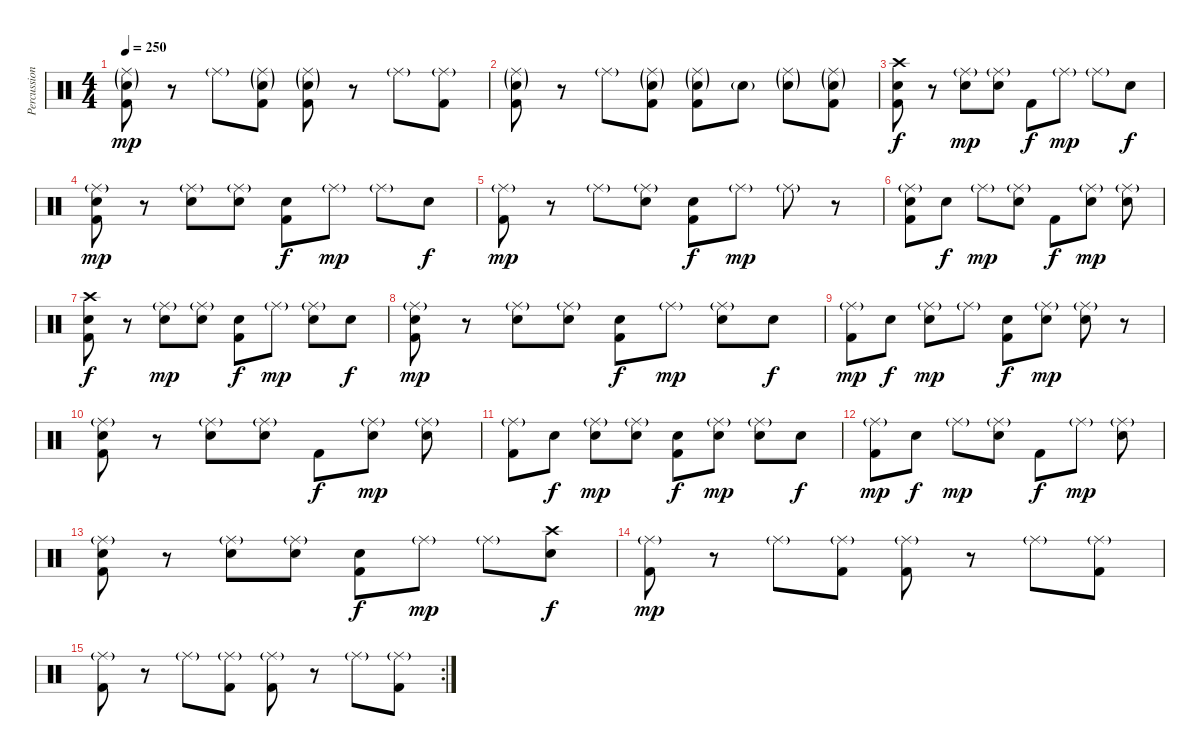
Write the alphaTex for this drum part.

\track ("Percussion" "Percussion") {instrument percussion}
\staff {score}
\articulation defaults
\ts (4 4)
\tempo 250
\clef neutral
\ks c
("Ride (middle)"{g} "Electric Snare (hit)"{g} "Kick (hit) 2").8{dy mp} r.8 "Ride (middle)"{g}.8 ("Ride (middle)"{g} "Electric Snare (hit)"{g} "Kick (hit) 2").8 ("Ride (middle)"{g} "Electric Snare (hit)"{g} "Kick (hit) 2").8 r.8 "Ride (middle)"{g}.8 ("Ride (middle)"{g} "Kick (hit) 2").8 |
("Ride (middle)"{g} "Electric Snare (hit)"{g} "Kick (hit) 2").8 r.8 "Ride (middle)"{g}.8 ("Ride (middle)"{g} "Electric Snare (hit)"{g} "Kick (hit) 2").8 ("Ride (middle)"{g} "Electric Snare (hit)"{g} "Kick (hit) 2").8 "Electric Snare (hit)"{g}.8 ("Ride (middle)"{g} "Electric Snare (hit)"{g}).8 ("Ride (middle)"{g} "Electric Snare (hit)"{g} "Kick (hit) 2").8 |
("Crash high (hit)" "Electric Snare (hit)" "Kick (hit) 2").8{dy f} r.8 ("Ride (middle)"{g} "Electric Snare (hit)").8{dy mp} ("Ride (middle)"{g} "Electric Snare (hit)").8 "Kick (hit) 2".8{dy f} "Ride (middle)"{g}.8{dy mp} "Ride (middle)"{g}.8 "Electric Snare (hit)".8{dy f} |
("Ride (middle)"{g} "Electric Snare (hit)" "Kick (hit) 2").8{dy mp} r.8 ("Ride (middle)"{g} "Electric Snare (hit)").8 ("Ride (middle)"{g} "Electric Snare (hit)").8 ("Electric Snare (hit)" "Kick (hit) 2").8{dy f} "Ride (middle)"{g}.8{dy mp} "Ride (middle)"{g}.8 "Electric Snare (hit)".8{dy f} |
("Ride (middle)"{g} "Kick (hit) 2").8{dy mp} r.8 "Ride (middle)"{g}.8 ("Ride (middle)"{g} "Electric Snare (hit)").8 ("Electric Snare (hit)" "Kick (hit) 2").8{dy f} "Ride (middle)"{g}.8{dy mp} "Ride (middle)"{g}.8 r.8 |
("Ride (middle)"{g} "Electric Snare (hit)" "Kick (hit) 2").8 "Electric Snare (hit)".8{dy f} "Ride (middle)"{g}.8{dy mp} ("Ride (middle)"{g} "Electric Snare (hit)").8 "Kick (hit) 2".8{dy f} ("Ride (middle)"{g} "Electric Snare (hit)").8{dy mp} ("Ride (middle)"{g} "Electric Snare (hit)").8 |
("Crash high (hit)" "Electric Snare (hit)" "Kick (hit) 2").8{dy f} r.8 ("Ride (middle)"{g} "Electric Snare (hit)").8{dy mp} ("Ride (middle)"{g} "Electric Snare (hit)").8 ("Electric Snare (hit)" "Kick (hit) 2").8{dy f} "Ride (middle)"{g}.8{dy mp} ("Ride (middle)"{g} "Electric Snare (hit)").8 "Electric Snare (hit)".8{dy f} |
("Ride (middle)"{g} "Electric Snare (hit)" "Kick (hit) 2").8{dy mp} r.8 ("Ride (middle)"{g} "Electric Snare (hit)").8 ("Ride (middle)"{g} "Electric Snare (hit)").8 ("Electric Snare (hit)" "Kick (hit) 2").8{dy f} "Ride (middle)"{g}.8{dy mp} ("Ride (middle)"{g} "Electric Snare (hit)").8 "Electric Snare (hit)".8{dy f} |
("Ride (middle)"{g} "Kick (hit) 2").8{dy mp} "Electric Snare (hit)".8{dy f} ("Ride (middle)"{g} "Electric Snare (hit)").8{dy mp} "Ride (middle)"{g}.8 ("Electric Snare (hit)" "Kick (hit) 2").8{dy f} ("Ride (middle)"{g} "Electric Snare (hit)").8{dy mp} ("Ride (middle)"{g} "Electric Snare (hit)").8 r.8 |
("Ride (middle)"{g} "Electric Snare (hit)" "Kick (hit) 2").8 r.8 ("Ride (middle)"{g} "Electric Snare (hit)").8 ("Ride (middle)"{g} "Electric Snare (hit)").8 "Kick (hit) 2".8{dy f} ("Ride (middle)"{g} "Electric Snare (hit)").8{dy mp} ("Ride (middle)"{g} "Electric Snare (hit)").8 |
("Ride (middle)"{g} "Kick (hit) 2").8 "Electric Snare (hit)".8{dy f} ("Ride (middle)"{g} "Electric Snare (hit)").8{dy mp} ("Ride (middle)"{g} "Electric Snare (hit)").8 ("Electric Snare (hit)" "Kick (hit) 2").8{dy f} ("Ride (middle)"{g} "Electric Snare (hit)").8{dy mp} ("Ride (middle)"{g} "Electric Snare (hit)").8 "Electric Snare (hit)".8{dy f} |
("Ride (middle)"{g} "Kick (hit) 2").8{dy mp} "Electric Snare (hit)".8{dy f} "Ride (middle)"{g}.8{dy mp} ("Ride (middle)"{g} "Electric Snare (hit)").8 "Kick (hit) 2".8{dy f} "Ride (middle)"{g}.8{dy mp} ("Ride (middle)"{g} "Electric Snare (hit)").8 |
("Ride (middle)"{g} "Electric Snare (hit)" "Kick (hit) 2").8 r.8 ("Ride (middle)"{g} "Electric Snare (hit)").8 ("Ride (middle)"{g} "Electric Snare (hit)").8 ("Electric Snare (hit)" "Kick (hit) 2").8{dy f} "Ride (middle)"{g}.8{dy mp} "Ride (middle)"{g}.8 ("Crash high (hit)" "Electric Snare (hit)").8{dy f} |
("Ride (middle)"{g} "Kick (hit) 2").8{dy mp} r.8 "Ride (middle)"{g}.8 ("Ride (middle)"{g} "Kick (hit) 2").8 ("Ride (middle)"{g} "Kick (hit) 2").8 r.8 "Ride (middle)"{g}.8 ("Ride (middle)"{g} "Kick (hit) 2").8 |
\rc 2
("Ride (middle)"{g} "Kick (hit) 2").8 r.8 "Ride (middle)"{g}.8 ("Ride (middle)"{g} "Kick (hit) 2").8 ("Ride (middle)"{g} "Kick (hit) 2").8 r.8 "Ride (middle)"{g}.8 ("Ride (middle)"{g} "Kick (hit) 2").8
